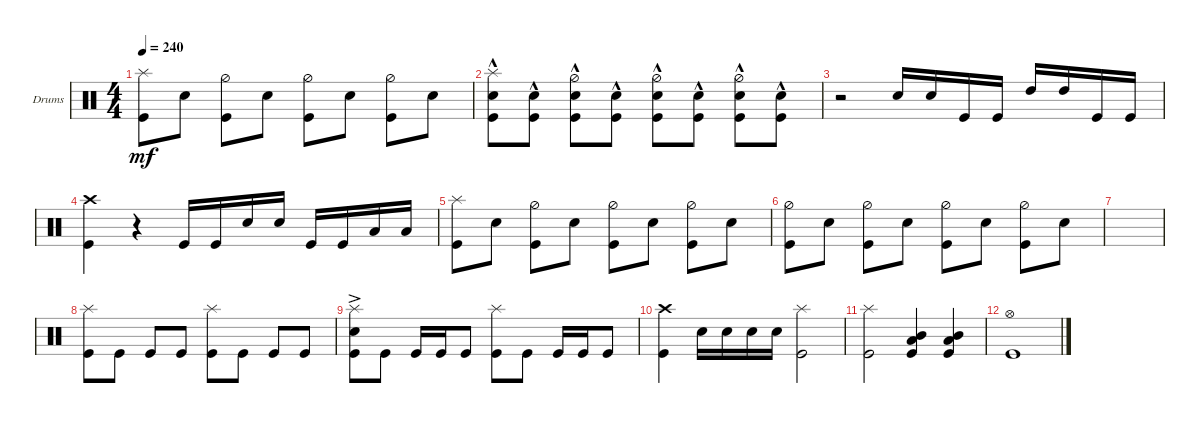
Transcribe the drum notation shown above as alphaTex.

\defaultSystemsLayout 4
\bracketExtendMode groupsimilarinstruments
\firstSystemTrackNameOrientation horizontal
\otherSystemsTrackNameOrientation horizontal
\track ("Drumkit" "Drums") {instrument percussion}
\staff {score}
\articulation defaults
\ts (4 4)
\tempo 240
\clef neutral
\ks c
("Splash (hit)" "Kick (hit)").8{dy mf} "Snare (hit) 2".8 ("Hi-Hat (half)" "Kick (hit)").8 "Snare (hit) 2".8 ("Hi-Hat (half)" "Kick (hit)").8 "Snare (hit) 2".8 ("Hi-Hat (half)" "Kick (hit)").8 "Snare (hit) 2".8 |
("Splash (hit)" "Kick (hit)" "Snare (hit) 2"{hac}).8 ("Snare (hit) 2"{hac} "Kick (hit)").8 ("Hi-Hat (half)" "Kick (hit)" "Snare (hit) 2"{hac}).8 ("Snare (hit) 2"{hac} "Kick (hit)").8 ("Hi-Hat (half)" "Kick (hit)" "Snare (hit) 2"{hac}).8 ("Snare (hit) 2"{hac} "Kick (hit)").8 ("Hi-Hat (half)" "Kick (hit)" "Snare (hit) 2"{hac}).8 ("Snare (hit) 2"{hac} "Kick (hit)").8 |
r.2 "Snare (hit) 2".16 "Snare (hit) 2".16 "Kick (hit)".16 "Kick (hit)".16 "High Tom (hit)".16 "High Tom (hit)".16 "Kick (hit)".16 "Kick (hit)".16 |
("Crash high (hit)" "Kick (hit)").4 r.4 "Kick (hit)".16 "Kick (hit)".16 "Snare (hit) 2".16 "Snare (hit) 2".16 "Kick (hit)".16 "Kick (hit)".16 "Low Tom (hit)".16 "Low Tom (hit)".16 |
("Splash (hit)" "Kick (hit)").8 "Snare (hit) 2".8 ("Hi-Hat (half)" "Kick (hit)").8 "Snare (hit) 2".8 ("Hi-Hat (half)" "Kick (hit)").8 "Snare (hit) 2".8 ("Hi-Hat (half)" "Kick (hit)").8 "Snare (hit) 2".8 |
("Kick (hit)" "Hi-Hat (half)").8 "Snare (hit) 2".8 ("Hi-Hat (half)" "Kick (hit)").8 "Snare (hit) 2".8 ("Hi-Hat (half)" "Kick (hit)").8 "Snare (hit) 2".8 ("Hi-Hat (half)" "Kick (hit)").8 "Snare (hit) 2".8 |
|
("Kick (hit)" "Splash (hit)").8 "Kick (hit)".8 "Kick (hit)".8 "Kick (hit)".8 ("Kick (hit)" "Splash (hit)").8 "Kick (hit)".8 "Kick (hit)".8 "Kick (hit)".8 |
("Kick (hit)" "Splash (hit)" "Snare (hit) 2"{ac}).8 "Kick (hit)".8 "Kick (hit)".16 "Kick (hit)".16 "Kick (hit)".8 ("Kick (hit)" "Splash (hit)").8 "Kick (hit)".8 "Kick (hit)".16 "Kick (hit)".16 "Kick (hit)".8 |
("Kick (hit)" "Crash high (hit)").4 "Snare (hit) 2".16 "Snare (hit) 2".16 "Snare (hit) 2".16 "Snare (hit) 2".16 ("Kick (hit)" "Splash (hit)").2 |
("Splash (hit)" "Kick (hit)").2 ("Kick (hit)" "Low Tom (hit)" "Mid Tom (hit)").4 ("Kick (hit)" "Low Tom (hit)" "Mid Tom (hit)").4 |
("Hi-Hat (open)" "Kick (hit)").1
